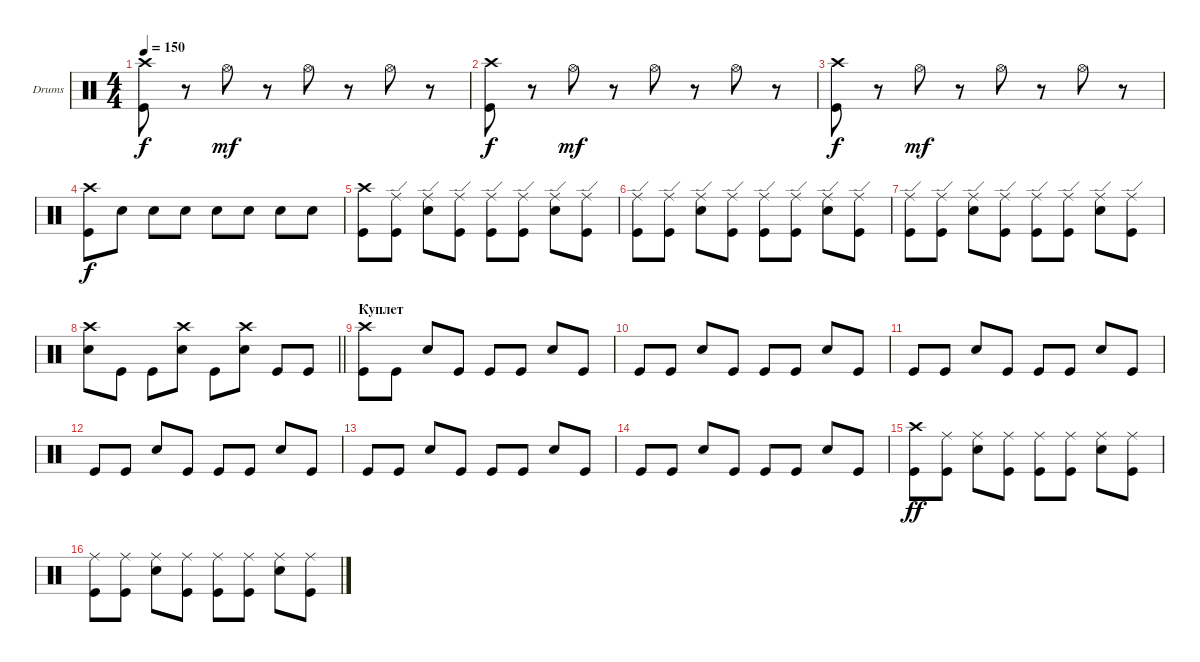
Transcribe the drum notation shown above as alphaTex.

\bracketExtendMode groupsimilarinstruments
\firstSystemTrackNameOrientation horizontal
\otherSystemsTrackNameOrientation horizontal
\track ("Drumkit" "Drums") {instrument percussion}
\staff {score}
\articulation defaults
\ts (4 4)
\tempo 150
\clef neutral
\ks c
("Crash high (hit)" "Kick (hit)").8{dy f} r.8 "Hi-Hat (open)".8{dy mf} r.8 "Hi-Hat (open)".8 r.8 "Hi-Hat (open)".8 r.8 |
("Crash high (hit)" "Kick (hit)").8{dy f} r.8 "Hi-Hat (open)".8{dy mf} r.8 "Hi-Hat (open)".8 r.8 "Hi-Hat (open)".8 r.8 |
("Crash high (hit)" "Kick (hit)").8{dy f} r.8 "Hi-Hat (open)".8{dy mf} r.8 "Hi-Hat (open)".8 r.8 "Hi-Hat (open)".8 r.8 |
("Crash high (hit)" "Kick (hit)").8{dy f} "Snare (hit) 2".8 "Snare (hit) 2".8 "Snare (hit) 2".8 "Snare (hit) 2".8 "Snare (hit) 2".8 "Snare (hit) 2".8 "Snare (hit) 2".8 |
("Crash high (hit)" "Kick (hit)").8 ("Ride (edge)" "Kick (hit)").8 ("Ride (edge)" "Snare (hit) 2").8 ("Ride (edge)" "Kick (hit)").8 ("Ride (edge)" "Kick (hit)").8 ("Ride (edge)" "Kick (hit)").8 ("Ride (edge)" "Snare (hit) 2").8 ("Ride (edge)" "Kick (hit)").8 |
("Ride (edge)" "Kick (hit)").8 ("Ride (edge)" "Kick (hit)").8 ("Ride (edge)" "Snare (hit) 2").8 ("Ride (edge)" "Kick (hit)").8 ("Ride (edge)" "Kick (hit)").8 ("Ride (edge)" "Kick (hit)").8 ("Ride (edge)" "Snare (hit) 2").8 ("Ride (edge)" "Kick (hit)").8 |
("Ride (edge)" "Kick (hit)").8 ("Ride (edge)" "Kick (hit)").8 ("Ride (edge)" "Snare (hit) 2").8 ("Ride (edge)" "Kick (hit)").8 ("Ride (edge)" "Kick (hit)").8 ("Ride (edge)" "Kick (hit)").8 ("Ride (edge)" "Snare (hit) 2").8 ("Ride (edge)" "Kick (hit)").8 |
\barLineRight lightlight
("Crash high (hit)" "Snare (hit) 2").8 "Kick (hit)".8 "Kick (hit)".8 ("Crash high (hit)" "Snare (hit) 2").8 "Kick (hit)".8 ("Crash high (hit)" "Snare (hit) 2").8 "Kick (hit)".8 "Kick (hit)".8 |
\section ("" "Куплет")
("Crash high (hit)" "Kick (hit)").8 "Kick (hit)".8 "Snare (hit) 2".8 "Kick (hit)".8 "Kick (hit)".8 "Kick (hit)".8 "Snare (hit) 2".8 "Kick (hit)".8 |
"Kick (hit)".8 "Kick (hit)".8 "Snare (hit) 2".8 "Kick (hit)".8 "Kick (hit)".8 "Kick (hit)".8 "Snare (hit) 2".8 "Kick (hit)".8 |
"Kick (hit)".8 "Kick (hit)".8 "Snare (hit) 2".8 "Kick (hit)".8 "Kick (hit)".8 "Kick (hit)".8 "Snare (hit) 2".8 "Kick (hit)".8 |
"Kick (hit)".8 "Kick (hit)".8 "Snare (hit) 2".8 "Kick (hit)".8 "Kick (hit)".8 "Kick (hit)".8 "Snare (hit) 2".8 "Kick (hit)".8 |
"Kick (hit)".8 "Kick (hit)".8 "Snare (hit) 2".8 "Kick (hit)".8 "Kick (hit)".8 "Kick (hit)".8 "Snare (hit) 2".8 "Kick (hit)".8 |
"Kick (hit)".8 "Kick (hit)".8 "Snare (hit) 2".8 "Kick (hit)".8 "Kick (hit)".8 "Kick (hit)".8 "Snare (hit) 2".8 "Kick (hit)".8 |
("Crash high (hit)" "Kick (hit)").8{dy ff} ("Ride (middle)" "Kick (hit)").8 ("Ride (middle)" "Snare (hit) 2").8 ("Ride (middle)" "Kick (hit)").8 ("Ride (middle)" "Kick (hit)").8 ("Ride (middle)" "Kick (hit)").8 ("Ride (middle)" "Snare (hit) 2").8 ("Ride (middle)" "Kick (hit)").8 |
("Ride (middle)" "Kick (hit)").8 ("Ride (middle)" "Kick (hit)").8 ("Ride (middle)" "Snare (hit) 2").8 ("Ride (middle)" "Kick (hit)").8 ("Ride (middle)" "Kick (hit)").8 ("Ride (middle)" "Kick (hit)").8 ("Ride (middle)" "Snare (hit) 2").8 ("Ride (middle)" "Kick (hit)").8
